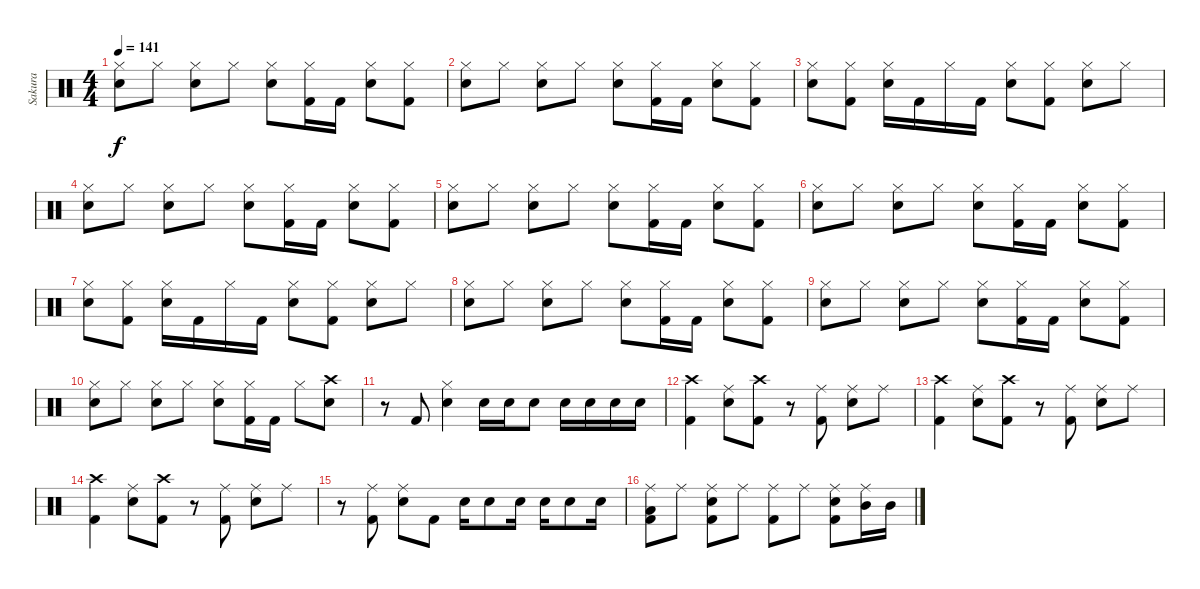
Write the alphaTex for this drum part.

\track ("Sakura" "Sakura") {instrument percussion}
\staff {score}
\articulation defaults
\ts (4 4)
\tempo 141
\clef neutral
\ks c
("Hi-Hat (closed)" "Snare (hit) 2").8{dy f} "Hi-Hat (closed)".8 ("Hi-Hat (closed)" "Snare (hit) 2").8 "Hi-Hat (closed)".8 ("Hi-Hat (closed)" "Snare (hit) 2").8 ("Hi-Hat (closed)" "Kick (hit) 2").16 "Kick (hit) 2".16 ("Hi-Hat (closed)" "Snare (hit) 2").8 ("Hi-Hat (closed)" "Kick (hit) 2").8 |
("Hi-Hat (closed)" "Snare (hit) 2").8 "Hi-Hat (closed)".8 ("Hi-Hat (closed)" "Snare (hit) 2").8 "Hi-Hat (closed)".8 ("Hi-Hat (closed)" "Snare (hit) 2").8 ("Hi-Hat (closed)" "Kick (hit) 2").16 "Kick (hit) 2".16 ("Hi-Hat (closed)" "Snare (hit) 2").8 ("Hi-Hat (closed)" "Kick (hit) 2").8 |
("Hi-Hat (closed)" "Snare (hit) 2").8 ("Hi-Hat (closed)" "Kick (hit) 2").8 ("Hi-Hat (closed)" "Snare (hit) 2").16 "Kick (hit) 2".16 "Hi-Hat (closed)".16 "Kick (hit) 2".16 ("Hi-Hat (closed)" "Snare (hit) 2").8 ("Hi-Hat (closed)" "Kick (hit) 2").8 ("Hi-Hat (closed)" "Snare (hit) 2").8 "Hi-Hat (closed)".8 |
("Hi-Hat (closed)" "Snare (hit) 2").8 "Hi-Hat (closed)".8 ("Hi-Hat (closed)" "Snare (hit) 2").8 "Hi-Hat (closed)".8 ("Hi-Hat (closed)" "Snare (hit) 2").8 ("Hi-Hat (closed)" "Kick (hit) 2").16 "Kick (hit) 2".16 ("Hi-Hat (closed)" "Snare (hit) 2").8 ("Hi-Hat (closed)" "Kick (hit) 2").8 |
("Hi-Hat (closed)" "Snare (hit) 2").8 "Hi-Hat (closed)".8 ("Hi-Hat (closed)" "Snare (hit) 2").8 "Hi-Hat (closed)".8 ("Hi-Hat (closed)" "Snare (hit) 2").8 ("Hi-Hat (closed)" "Kick (hit) 2").16 "Kick (hit) 2".16 ("Hi-Hat (closed)" "Snare (hit) 2").8 ("Hi-Hat (closed)" "Kick (hit) 2").8 |
("Hi-Hat (closed)" "Snare (hit) 2").8 "Hi-Hat (closed)".8 ("Hi-Hat (closed)" "Snare (hit) 2").8 "Hi-Hat (closed)".8 ("Hi-Hat (closed)" "Snare (hit) 2").8 ("Hi-Hat (closed)" "Kick (hit) 2").16 "Kick (hit) 2".16 ("Hi-Hat (closed)" "Snare (hit) 2").8 ("Hi-Hat (closed)" "Kick (hit) 2").8 |
("Hi-Hat (closed)" "Snare (hit) 2").8 ("Hi-Hat (closed)" "Kick (hit) 2").8 ("Hi-Hat (closed)" "Snare (hit) 2").16 "Kick (hit) 2".16 "Hi-Hat (closed)".16 "Kick (hit) 2".16 ("Hi-Hat (closed)" "Snare (hit) 2").8 ("Hi-Hat (closed)" "Kick (hit) 2").8 ("Hi-Hat (closed)" "Snare (hit) 2").8 "Hi-Hat (closed)".8 |
("Hi-Hat (closed)" "Snare (hit) 2").8 "Hi-Hat (closed)".8 ("Hi-Hat (closed)" "Snare (hit) 2").8 "Hi-Hat (closed)".8 ("Hi-Hat (closed)" "Snare (hit) 2").8 ("Hi-Hat (closed)" "Kick (hit) 2").16 "Kick (hit) 2".16 ("Hi-Hat (closed)" "Snare (hit) 2").8 ("Hi-Hat (closed)" "Kick (hit) 2").8 |
("Hi-Hat (closed)" "Snare (hit) 2").8 "Hi-Hat (closed)".8 ("Hi-Hat (closed)" "Snare (hit) 2").8 "Hi-Hat (closed)".8 ("Hi-Hat (closed)" "Snare (hit) 2").8 ("Hi-Hat (closed)" "Kick (hit) 2").16 "Kick (hit) 2".16 ("Hi-Hat (closed)" "Snare (hit) 2").8 ("Hi-Hat (closed)" "Kick (hit) 2").8 |
("Hi-Hat (closed)" "Snare (hit) 2").8 "Hi-Hat (closed)".8 ("Hi-Hat (closed)" "Snare (hit) 2").8 "Hi-Hat (closed)".8 ("Hi-Hat (closed)" "Snare (hit) 2").8 ("Hi-Hat (closed)" "Kick (hit) 2").16 "Kick (hit) 2".16 "Hi-Hat (closed)".8 ("Crash high (hit)" "Snare (hit) 2").8 |
r.8 "Kick (hit) 2".8 ("Hi-Hat (closed)" "Snare (hit) 2").4 "Snare (hit) 2".16 "Snare (hit) 2".16 "Snare (hit) 2".8 "Snare (hit) 2".16 "Snare (hit) 2".16 "Snare (hit) 2".16 "Snare (hit) 2".16 |
("Crash high (hit)" "Kick (hit) 2").4 ("Ride (middle)" "Snare (hit) 2").8 ("Crash high (hit)" "Kick (hit) 2").8 r.8 ("Ride (middle)" "Kick (hit) 2").8 ("Ride (middle)" "Snare (hit) 2").8 "Ride (middle)".8 |
("Crash high (hit)" "Kick (hit) 2").4 ("Ride (middle)" "Snare (hit) 2").8 ("Crash high (hit)" "Kick (hit) 2").8 r.8 ("Ride (middle)" "Kick (hit) 2").8 ("Ride (middle)" "Snare (hit) 2").8 "Ride (middle)".8 |
("Crash high (hit)" "Kick (hit) 2").4 ("Ride (middle)" "Snare (hit) 2").8 ("Crash high (hit)" "Kick (hit) 2").8 r.8 ("Ride (middle)" "Kick (hit) 2").8 ("Ride (middle)" "Snare (hit) 2").8 "Ride (middle)".8 |
r.8 ("Ride (middle)" "Kick (hit) 2").8 ("Ride (middle)" "Snare (hit) 2").8 "Kick (hit) 2".8 "Snare (hit) 2".16 "Snare (hit) 2".8 "Snare (hit) 2".16 "Snare (hit) 2".16 "Snare (hit) 2".8 "Snare (hit) 2".16 |
("Ride (middle)" "Low Tom (hit)" "Kick (hit) 2").8 "Ride (middle)".8 ("Ride (middle)" "Snare (hit) 2" "Kick (hit) 2").8 "Ride (middle)".8 ("Ride (middle)" "Kick (hit) 2").8 "Ride (middle)".8 ("Ride (middle)" "Snare (hit) 2" "Kick (hit) 2").8 ("Ride (middle)" "Mid Tom (hit)").16 "Mid Tom (hit)".16
